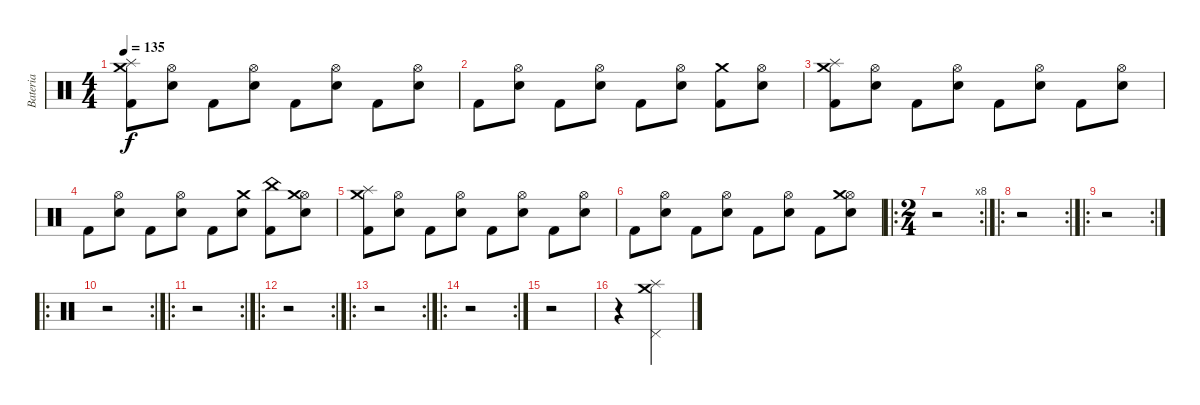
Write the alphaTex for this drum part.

\track ("Bateria" "Bateria") {instrument percussion}
\staff {score}
\articulation defaults
\ts (4 4)
\tempo 135
\clef neutral
\ks c
("Crash medium (hit)" "Splash (hit)" "Kick (hit) 2").8{dy f} ("Hi-Hat (open)" "Snare (hit) 2").8 "Kick (hit) 2".8 ("Hi-Hat (open)" "Snare (hit) 2").8 "Kick (hit) 2".8 ("Hi-Hat (open)" "Snare (hit) 2").8 "Kick (hit) 2".8 ("Hi-Hat (open)" "Snare (hit) 2").8 |
"Kick (hit) 2".8 ("Hi-Hat (open)" "Snare (hit) 2").8 "Kick (hit) 2".8 ("Hi-Hat (open)" "Snare (hit) 2").8 "Kick (hit) 2".8 ("Hi-Hat (open)" "Snare (hit) 2").8 ("Crash medium (hit)" "Kick (hit) 2").8 ("Hi-Hat (open)" "Snare (hit) 2").8 |
("Crash medium (hit)" "Splash (hit)" "Kick (hit) 2").8 ("Hi-Hat (open)" "Snare (hit) 2").8 "Kick (hit) 2".8 ("Hi-Hat (open)" "Snare (hit) 2").8 "Kick (hit) 2".8 ("Hi-Hat (open)" "Snare (hit) 2").8 "Kick (hit) 2".8 ("Hi-Hat (open)" "Snare (hit) 2").8 |
"Kick (hit) 2".8 ("Hi-Hat (open)" "Snare (hit) 2").8 "Kick (hit) 2".8 ("Hi-Hat (open)" "Snare (hit) 2").8 "Kick (hit) 2".8 ("Crash medium (hit)" "Snare (hit) 2").8 ("China (hit)" "Kick (hit) 2").8 ("Hi-Hat (open)" "Crash medium (hit)" "Snare (hit) 2").8 |
("Crash medium (hit)" "Splash (hit)" "Kick (hit) 2").8 ("Hi-Hat (open)" "Snare (hit) 2").8 "Kick (hit) 2".8 ("Hi-Hat (open)" "Snare (hit) 2").8 "Kick (hit) 2".8 ("Hi-Hat (open)" "Snare (hit) 2").8 "Kick (hit) 2".8 ("Hi-Hat (open)" "Snare (hit) 2").8 |
"Kick (hit) 2".8 ("Hi-Hat (open)" "Snare (hit) 2").8 "Kick (hit) 2".8 ("Hi-Hat (open)" "Snare (hit) 2").8 "Kick (hit) 2".8 ("Hi-Hat (open)" "Snare (hit) 2").8 "Kick (hit) 2".8 ("Hi-Hat (open)" "Crash medium (hit)" "Snare (hit) 2").8 |
\ro
\rc 8
\ts (2 4)
r.2 |
\ro
\rc 2
r.2 |
\ro
\rc 2
r.2 |
\ro
\rc 2
r.2 |
\ro
\rc 2
r.2 |
\ro
\rc 2
r.2 |
\ro
\rc 2
r.2 |
\ro
\rc 2
r.2 |
r.2 |
r.4 ("Pedal Hi-Hat (hit)" "Crash medium (hit)" "Splash (hit)").4
